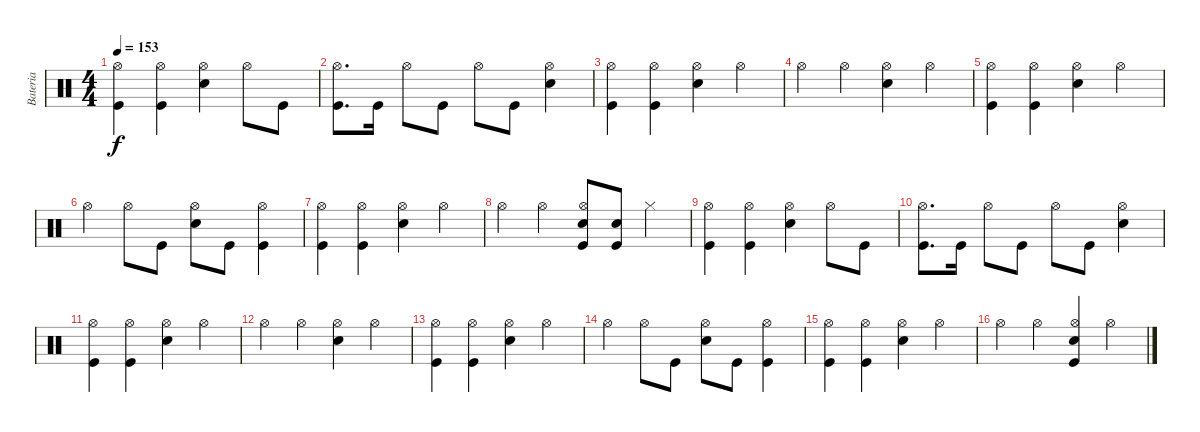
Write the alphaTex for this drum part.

\track ("Bateria" "Bateria") {instrument percussion}
\staff {score}
\articulation defaults
\ts (4 4)
\tempo 153
\clef neutral
\ks c
("Kick (hit)" "Hi-Hat (open)").4{dy f} ("Kick (hit)" "Hi-Hat (open)").4 ("Snare (hit) 2" "Hi-Hat (open)").4 "Hi-Hat (open)".8 "Kick (hit)".8 |
("Kick (hit)" "Hi-Hat (open)").8{d} "Kick (hit)".16 "Hi-Hat (open)".8 "Kick (hit)".8 "Hi-Hat (open)".8 "Kick (hit)".8 ("Snare (hit) 2" "Hi-Hat (open)").4 |
("Kick (hit)" "Hi-Hat (open)").4 ("Kick (hit)" "Hi-Hat (open)").4 ("Snare (hit) 2" "Hi-Hat (open)").4 "Hi-Hat (open)".4 |
"Hi-Hat (open)".4 "Hi-Hat (open)".4 ("Snare (hit) 2" "Hi-Hat (open)").4 "Hi-Hat (open)".4 |
("Kick (hit)" "Hi-Hat (open)").4 ("Kick (hit)" "Hi-Hat (open)").4 ("Snare (hit) 2" "Hi-Hat (open)").4 "Hi-Hat (open)".4 |
"Hi-Hat (open)".4 "Hi-Hat (open)".8 "Kick (hit)".8 ("Snare (hit) 2" "Hi-Hat (open)").8 "Kick (hit)".8 ("Kick (hit)" "Hi-Hat (open)").4 |
("Kick (hit)" "Hi-Hat (open)").4 ("Kick (hit)" "Hi-Hat (open)").4 ("Snare (hit) 2" "Hi-Hat (open)").4 "Hi-Hat (open)".4 |
"Hi-Hat (open)".4 "Hi-Hat (open)".4 ("Kick (hit)" "Snare (hit) 2" "Hi-Hat (open)").8 ("Kick (hit)" "Snare (hit) 2").8 "Hi-Hat (closed)".4 |
("Kick (hit)" "Hi-Hat (open)").4 ("Kick (hit)" "Hi-Hat (open)").4 ("Snare (hit) 2" "Hi-Hat (open)").4 "Hi-Hat (open)".8 "Kick (hit)".8 |
("Kick (hit)" "Hi-Hat (open)").8{d} "Kick (hit)".16 "Hi-Hat (open)".8 "Kick (hit)".8 "Hi-Hat (open)".8 "Kick (hit)".8 ("Snare (hit) 2" "Hi-Hat (open)").4 |
("Kick (hit)" "Hi-Hat (open)").4 ("Kick (hit)" "Hi-Hat (open)").4 ("Snare (hit) 2" "Hi-Hat (open)").4 "Hi-Hat (open)".4 |
"Hi-Hat (open)".4 "Hi-Hat (open)".4 ("Snare (hit) 2" "Hi-Hat (open)").4 "Hi-Hat (open)".4 |
("Kick (hit)" "Hi-Hat (open)").4 ("Kick (hit)" "Hi-Hat (open)").4 ("Snare (hit) 2" "Hi-Hat (open)").4 "Hi-Hat (open)".4 |
"Hi-Hat (open)".4 "Hi-Hat (open)".8 "Kick (hit)".8 ("Snare (hit) 2" "Hi-Hat (open)").8 "Kick (hit)".8 ("Kick (hit)" "Hi-Hat (open)").4 |
("Kick (hit)" "Hi-Hat (open)").4 ("Kick (hit)" "Hi-Hat (open)").4 ("Snare (hit) 2" "Hi-Hat (open)").4 "Hi-Hat (open)".4 |
"Hi-Hat (open)".4 "Hi-Hat (open)".4 ("Kick (hit)" "Snare (hit) 2" "Hi-Hat (open)").4 "Hi-Hat (open)".4
